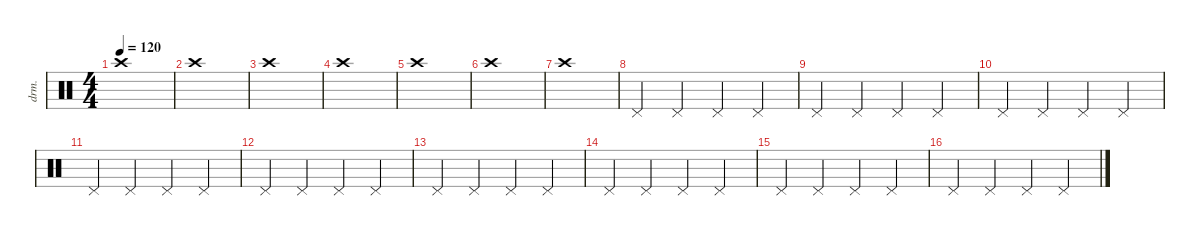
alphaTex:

\defaultSystemsLayout 4
\hideDynamics
\bracketExtendMode nobrackets
\otherSystemsTrackNameOrientation horizontal
\track ("Batterie" "drm.") {instrument percussion}
\staff {score}
\articulation defaults
\ts (4 4)
\tempo 120
\clef neutral
\ks c "Crash high (hit)".1{dy f}
|
"Crash high (hit)".1 |
"Crash high (hit)".1 |
"Crash high (hit)".1 |
"Crash high (hit)".1 |
"Crash high (hit)".1 |
"Crash high (hit)".1 |
"Pedal Hi-Hat (hit)".4 "Pedal Hi-Hat (hit)".4 "Pedal Hi-Hat (hit)".4 "Pedal Hi-Hat (hit)".4 |
"Pedal Hi-Hat (hit)".4 "Pedal Hi-Hat (hit)".4 "Pedal Hi-Hat (hit)".4 "Pedal Hi-Hat (hit)".4 |
"Pedal Hi-Hat (hit)".4 "Pedal Hi-Hat (hit)".4 "Pedal Hi-Hat (hit)".4 "Pedal Hi-Hat (hit)".4 |
"Pedal Hi-Hat (hit)".4 "Pedal Hi-Hat (hit)".4 "Pedal Hi-Hat (hit)".4 "Pedal Hi-Hat (hit)".4 |
"Pedal Hi-Hat (hit)".4 "Pedal Hi-Hat (hit)".4 "Pedal Hi-Hat (hit)".4 "Pedal Hi-Hat (hit)".4 |
"Pedal Hi-Hat (hit)".4 "Pedal Hi-Hat (hit)".4 "Pedal Hi-Hat (hit)".4 "Pedal Hi-Hat (hit)".4 |
"Pedal Hi-Hat (hit)".4 "Pedal Hi-Hat (hit)".4 "Pedal Hi-Hat (hit)".4 "Pedal Hi-Hat (hit)".4 |
"Pedal Hi-Hat (hit)".4 "Pedal Hi-Hat (hit)".4 "Pedal Hi-Hat (hit)".4 "Pedal Hi-Hat (hit)".4 |
"Pedal Hi-Hat (hit)".4 "Pedal Hi-Hat (hit)".4 "Pedal Hi-Hat (hit)".4 "Pedal Hi-Hat (hit)".4
